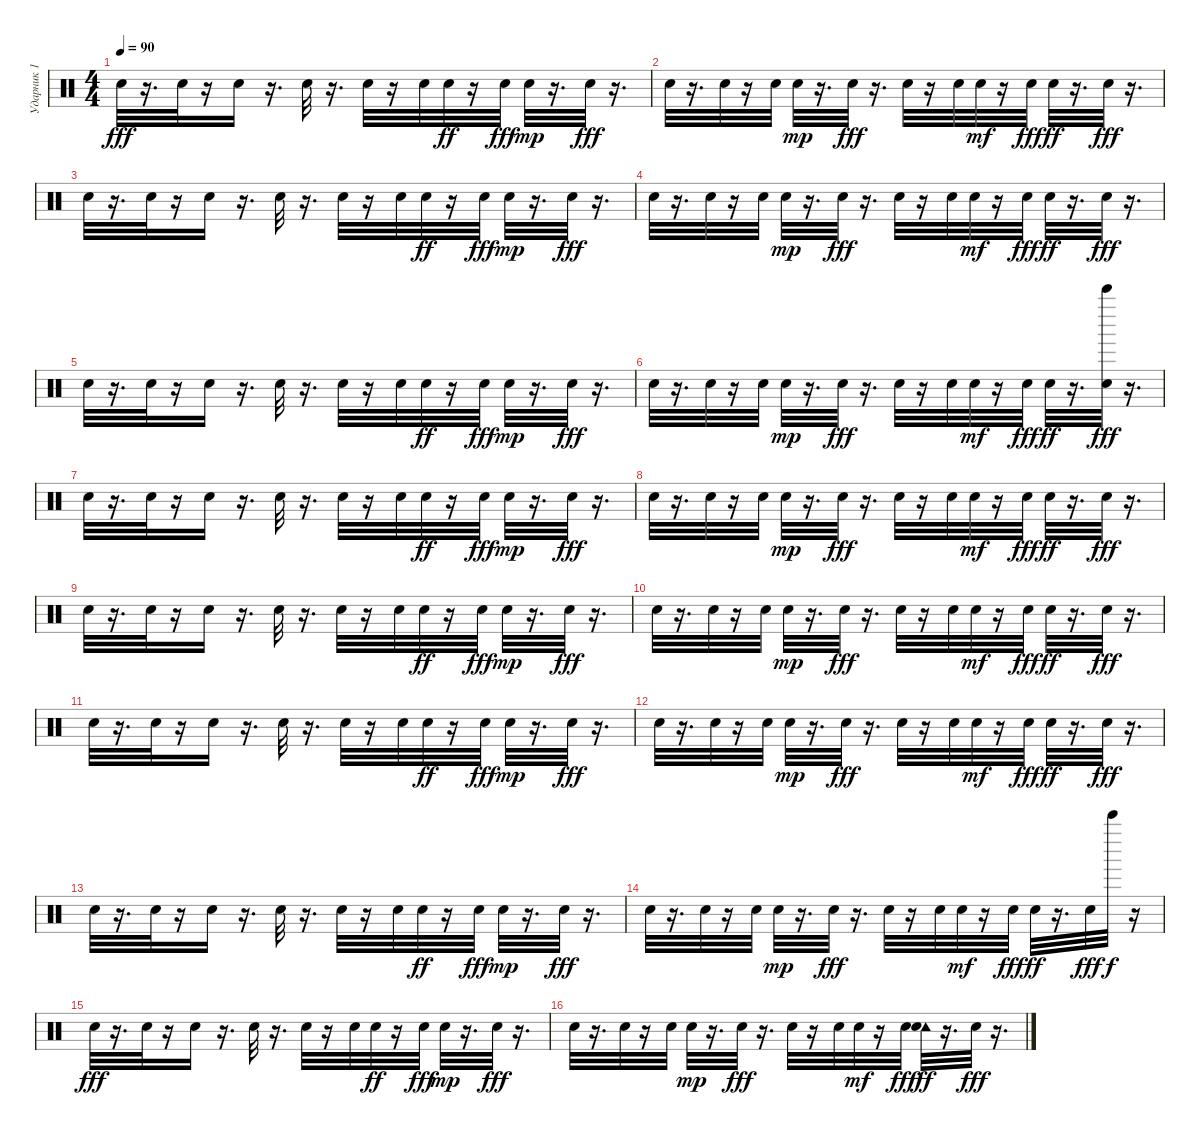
\track ("Ударник 1" "Ударник 1") {instrument percussion}
\staff {score}
\articulation defaults
\ts (4 4)
\tempo 90
\clef neutral
\ks c "Snare (hit)".32{dy fff}
r.16{d} "Snare (hit)".32 r.16 "Snare (hit)".16 r.16{d} "Snare (hit)".32 r.16{d} "Snare (hit)".32 r.16 "Snare (hit)".32 "Snare (hit)".32{dy ff} r.16 "Snare (hit)".32{dy fff} "Snare (hit)".32{dy mp} r.16{d} "Snare (hit)".32{dy fff} r.16{d} |
"Snare (hit)".32 r.16{d} "Snare (hit)".32 r.16 "Snare (hit)".32 "Snare (hit)".32{dy mp} r.16{d} "Snare (hit)".32{dy fff} r.16{d} "Snare (hit)".32 r.16 "Snare (hit)".32 "Snare (hit)".32{dy mf} r.16 "Snare (hit)".32{dy fff} "Snare (hit)".32{dy ff} r.16{d} "Snare (hit)".32{dy fff} r.16{d} |
"Snare (hit)".32 r.16{d} "Snare (hit)".32 r.16 "Snare (hit)".16 r.16{d} "Snare (hit)".32 r.16{d} "Snare (hit)".32 r.16 "Snare (hit)".32 "Snare (hit)".32{dy ff} r.16 "Snare (hit)".32{dy fff} "Snare (hit)".32{dy mp} r.16{d} "Snare (hit)".32{dy fff} r.16{d} |
"Snare (hit)".32 r.16{d} "Snare (hit)".32 r.16 "Snare (hit)".32 "Snare (hit)".32{dy mp} r.16{d} "Snare (hit)".32{dy fff} r.16{d} "Snare (hit)".32 r.16 "Snare (hit)".32 "Snare (hit)".32{dy mf} r.16 "Snare (hit)".32{dy fff} "Snare (hit)".32{dy ff} r.16{d} "Snare (hit)".32{dy fff} r.16{d} |
"Snare (hit)".32 r.16{d} "Snare (hit)".32 r.16 "Snare (hit)".16 r.16{d} "Snare (hit)".32 r.16{d} "Snare (hit)".32 r.16 "Snare (hit)".32 "Snare (hit)".32{dy ff} r.16 "Snare (hit)".32{dy fff} "Snare (hit)".32{dy mp} r.16{d} "Snare (hit)".32{dy fff} r.16{d} |
"Snare (hit)".32 r.16{d} "Snare (hit)".32 r.16 "Snare (hit)".32 "Snare (hit)".32{dy mp} r.16{d} "Snare (hit)".32{dy fff} r.16{d} "Snare (hit)".32 r.16 "Snare (hit)".32 "Snare (hit)".32{dy mf} r.16 "Snare (hit)".32{dy fff} "Snare (hit)".32{dy ff} r.16{d} ("Snare (hit)" "Bell Tree (hit)").32{dy fff} r.16{d} |
"Snare (hit)".32 r.16{d} "Snare (hit)".32 r.16 "Snare (hit)".16 r.16{d} "Snare (hit)".32 r.16{d} "Snare (hit)".32 r.16 "Snare (hit)".32 "Snare (hit)".32{dy ff} r.16 "Snare (hit)".32{dy fff} "Snare (hit)".32{dy mp} r.16{d} "Snare (hit)".32{dy fff} r.16{d} |
"Snare (hit)".32 r.16{d} "Snare (hit)".32 r.16 "Snare (hit)".32 "Snare (hit)".32{dy mp} r.16{d} "Snare (hit)".32{dy fff} r.16{d} "Snare (hit)".32 r.16 "Snare (hit)".32 "Snare (hit)".32{dy mf} r.16 "Snare (hit)".32{dy fff} "Snare (hit)".32{dy ff} r.16{d} "Snare (hit)".32{dy fff} r.16{d} |
"Snare (hit)".32 r.16{d} "Snare (hit)".32 r.16 "Snare (hit)".16 r.16{d} "Snare (hit)".32 r.16{d} "Snare (hit)".32 r.16 "Snare (hit)".32 "Snare (hit)".32{dy ff} r.16 "Snare (hit)".32{dy fff} "Snare (hit)".32{dy mp} r.16{d} "Snare (hit)".32{dy fff} r.16{d} |
"Snare (hit)".32 r.16{d} "Snare (hit)".32 r.16 "Snare (hit)".32 "Snare (hit)".32{dy mp} r.16{d} "Snare (hit)".32{dy fff} r.16{d} "Snare (hit)".32 r.16 "Snare (hit)".32 "Snare (hit)".32{dy mf} r.16 "Snare (hit)".32{dy fff} "Snare (hit)".32{dy ff} r.16{d} "Snare (hit)".32{dy fff} r.16{d} |
"Snare (hit)".32 r.16{d} "Snare (hit)".32 r.16 "Snare (hit)".16 r.16{d} "Snare (hit)".32 r.16{d} "Snare (hit)".32 r.16 "Snare (hit)".32 "Snare (hit)".32{dy ff} r.16 "Snare (hit)".32{dy fff} "Snare (hit)".32{dy mp} r.16{d} "Snare (hit)".32{dy fff} r.16{d} |
"Snare (hit)".32 r.16{d} "Snare (hit)".32 r.16 "Snare (hit)".32 "Snare (hit)".32{dy mp} r.16{d} "Snare (hit)".32{dy fff} r.16{d} "Snare (hit)".32 r.16 "Snare (hit)".32 "Snare (hit)".32{dy mf} r.16 "Snare (hit)".32{dy fff} "Snare (hit)".32{dy ff} r.16{d} "Snare (hit)".32{dy fff} r.16{d} |
"Snare (hit)".32 r.16{d} "Snare (hit)".32 r.16 "Snare (hit)".16 r.16{d} "Snare (hit)".32 r.16{d} "Snare (hit)".32 r.16 "Snare (hit)".32 "Snare (hit)".32{dy ff} r.16 "Snare (hit)".32{dy fff} "Snare (hit)".32{dy mp} r.16{d} "Snare (hit)".32{dy fff} r.16{d} |
"Snare (hit)".32 r.16{d} "Snare (hit)".32 r.16 "Snare (hit)".32 "Snare (hit)".32{dy mp} r.16{d} "Snare (hit)".32{dy fff} r.16{d} "Snare (hit)".32 r.16 "Snare (hit)".32 "Snare (hit)".32{dy mf} r.16 "Snare (hit)".32{dy fff} "Snare (hit)".32{dy ff} r.16{d} "Snare (hit)".32{dy fff} "Bell Tree (hit)".32{dy f} r.16 |
"Snare (hit)".32{dy fff} r.16{d} "Snare (hit)".32 r.16 "Snare (hit)".16 r.16{d} "Snare (hit)".32 r.16{d} "Snare (hit)".32 r.16 "Snare (hit)".32 "Snare (hit)".32{dy ff} r.16 "Snare (hit)".32{dy fff} "Snare (hit)".32{dy mp} r.16{d} "Snare (hit)".32{dy fff} r.16{d} |
"Snare (hit)".32 r.16{d} "Snare (hit)".32 r.16 "Snare (hit)".32 "Snare (hit)".32{dy mp} r.16{d} "Snare (hit)".32{dy fff} r.16{d} "Snare (hit)".32 r.16 "Snare (hit)".32 "Snare (hit)".32{dy mf} r.16 "Snare (hit)".32{dy fff} ("Tambourine (hit)" "Snare (hit)").32{dy ff} r.16{d} "Snare (hit)".32{dy fff} r.16{d}
